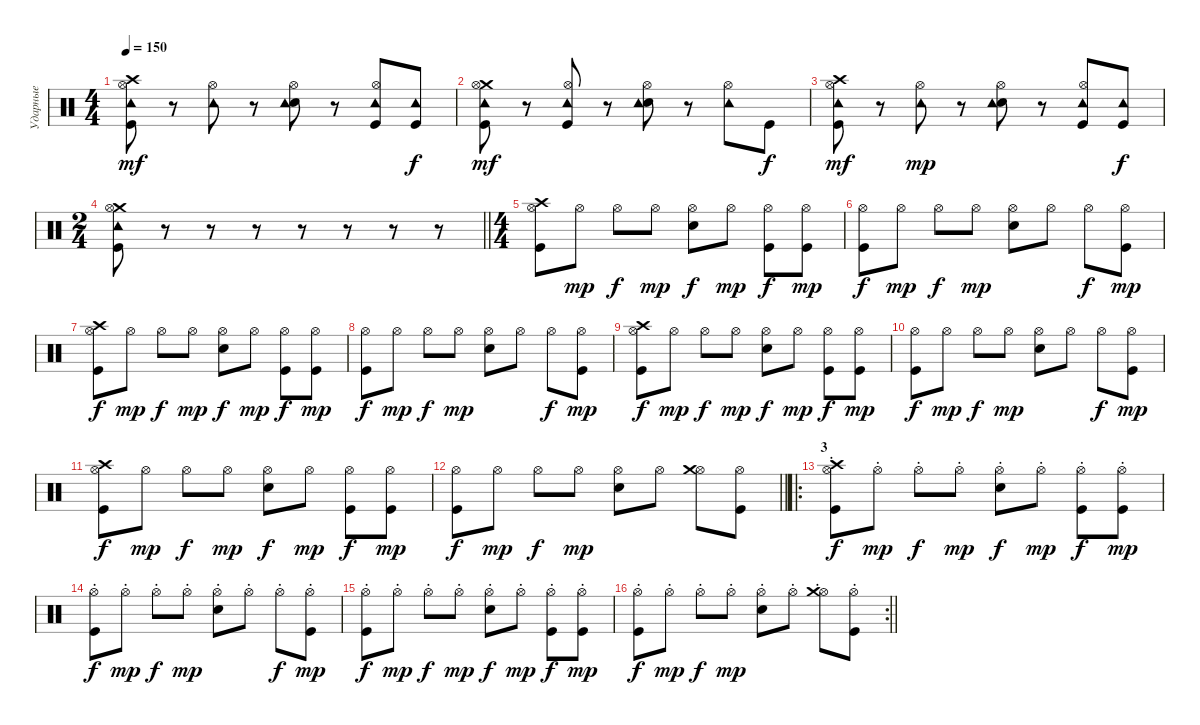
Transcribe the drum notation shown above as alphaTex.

\track ("Ударные" "Ударные") {instrument percussion}
\staff {score}
\articulation defaults
\ts (4 4)
\tempo 150
\clef neutral
\ks c
("Crash high (hit)" "Kick (hit)" "Hi-Hat (open)" "Tambourine (hit)").8{dy mf} r.8 ("Hi-Hat (open)" "Tambourine (hit)").8 r.8 ("Electric Snare (hit)" "Hi-Hat (open)" "Tambourine (hit)").8 r.8 ("Kick (hit)" "Hi-Hat (open)" "Tambourine (hit)").8 ("Kick (hit)" "Tambourine (hit)").8{dy f} |
("Crash medium (hit)" "Kick (hit)" "Hi-Hat (open)" "Tambourine (hit)").8{dy mf} r.8 ("Kick (hit)" "Hi-Hat (open)" "Tambourine (hit)").8 r.8 ("Electric Snare (hit)" "Hi-Hat (open)" "Tambourine (hit)").8 r.8 ("Hi-Hat (open)" "Tambourine (hit)").8 "Kick (hit)".8{dy f} |
("Crash high (hit)" "Kick (hit)" "Hi-Hat (open)" "Tambourine (hit)").8{dy mf} r.8 ("Hi-Hat (open)" "Tambourine (hit)").8{dy mp} r.8 ("Electric Snare (hit)" "Hi-Hat (open)" "Tambourine (hit)").8 r.8 ("Kick (hit)" "Hi-Hat (open)" "Tambourine (hit)").8 ("Kick (hit)" "Tambourine (hit)").8{dy f} |
\ts (2 4)
\barLineRight lightlight
("Crash medium (hit)" "Kick (hit)" "Hi-Hat (open)" "Tambourine (hit)").8 r.8 r.8 r.8 r.8 r.8 r.8 r.8 |
\ts (4 4)
("Crash high (hit)" "Hi-Hat (open)" "Kick (hit)").8 "Hi-Hat (open)".8{dy mp} "Hi-Hat (open)".8{dy f} "Hi-Hat (open)".8{dy mp} ("Snare (hit) 2" "Hi-Hat (open)").8{dy f} "Hi-Hat (open)".8{dy mp} ("Hi-Hat (open)" "Kick (hit)").8{dy f} ("Hi-Hat (open)" "Kick (hit)").8{dy mp} |
("Hi-Hat (open)" "Kick (hit)").8{dy f} "Hi-Hat (open)".8{dy mp} "Hi-Hat (open)".8{dy f} "Hi-Hat (open)".8{dy mp} ("Snare (hit) 2" "Hi-Hat (open)").8 "Hi-Hat (open)".8 "Hi-Hat (open)".8{dy f} ("Hi-Hat (open)" "Kick (hit)").8{dy mp} |
("Crash high (hit)" "Hi-Hat (open)" "Kick (hit)").8{dy f} "Hi-Hat (open)".8{dy mp} "Hi-Hat (open)".8{dy f} "Hi-Hat (open)".8{dy mp} ("Snare (hit) 2" "Hi-Hat (open)").8{dy f} "Hi-Hat (open)".8{dy mp} ("Hi-Hat (open)" "Kick (hit)").8{dy f} ("Hi-Hat (open)" "Kick (hit)").8{dy mp} |
("Hi-Hat (open)" "Kick (hit)").8{dy f} "Hi-Hat (open)".8{dy mp} "Hi-Hat (open)".8{dy f} "Hi-Hat (open)".8{dy mp} ("Snare (hit) 2" "Hi-Hat (open)").8 "Hi-Hat (open)".8 "Hi-Hat (open)".8{dy f} ("Hi-Hat (open)" "Kick (hit)").8{dy mp} |
("Crash high (hit)" "Hi-Hat (open)" "Kick (hit)").8{dy f} "Hi-Hat (open)".8{dy mp} "Hi-Hat (open)".8{dy f} "Hi-Hat (open)".8{dy mp} ("Snare (hit) 2" "Hi-Hat (open)").8{dy f} "Hi-Hat (open)".8{dy mp} ("Hi-Hat (open)" "Kick (hit)").8{dy f} ("Hi-Hat (open)" "Kick (hit)").8{dy mp} |
("Hi-Hat (open)" "Kick (hit)").8{dy f} "Hi-Hat (open)".8{dy mp} "Hi-Hat (open)".8{dy f} "Hi-Hat (open)".8{dy mp} ("Snare (hit) 2" "Hi-Hat (open)").8 "Hi-Hat (open)".8 "Hi-Hat (open)".8{dy f} ("Hi-Hat (open)" "Kick (hit)").8{dy mp} |
("Crash high (hit)" "Hi-Hat (open)" "Kick (hit)").8{dy f} "Hi-Hat (open)".8{dy mp} "Hi-Hat (open)".8{dy f} "Hi-Hat (open)".8{dy mp} ("Snare (hit) 2" "Hi-Hat (open)").8{dy f} "Hi-Hat (open)".8{dy mp} ("Hi-Hat (open)" "Kick (hit)").8{dy f} ("Hi-Hat (open)" "Kick (hit)").8{dy mp} |
\barLineRight lightlight
("Hi-Hat (open)" "Kick (hit)").8{dy f} "Hi-Hat (open)".8{dy mp} "Hi-Hat (open)".8{dy f} "Hi-Hat (open)".8{dy mp} ("Snare (hit) 2" "Hi-Hat (open)").8 "Hi-Hat (open)".8 ("Hi-Hat (open)" "Crash medium (hit)").8 ("Hi-Hat (open)" "Kick (hit)").8 |
\ro
\section ("" "3")
("Crash high (hit)"{st} "Hi-Hat (open)"{st} "Kick (hit)"{st}).8{dy f} "Hi-Hat (open)"{st}.8{dy mp} "Hi-Hat (open)"{st}.8{dy f} "Hi-Hat (open)"{st}.8{dy mp} ("Snare (hit) 2"{st} "Hi-Hat (open)"{st}).8{dy f} "Hi-Hat (open)"{st}.8{dy mp} ("Hi-Hat (open)"{st} "Kick (hit)"{st}).8{dy f} ("Hi-Hat (open)"{st} "Kick (hit)"{st}).8{dy mp} |
("Hi-Hat (open)"{st} "Kick (hit)"{st}).8{dy f} "Hi-Hat (open)"{st}.8{dy mp} "Hi-Hat (open)"{st}.8{dy f} "Hi-Hat (open)"{st}.8{dy mp} ("Snare (hit) 2"{st} "Hi-Hat (open)"{st}).8 "Hi-Hat (open)"{st}.8 "Hi-Hat (open)"{st}.8{dy f} ("Hi-Hat (open)"{st} "Kick (hit)"{st}).8{dy mp} |
("Hi-Hat (open)"{st} "Kick (hit)"{st}).8{dy f} "Hi-Hat (open)"{st}.8{dy mp} "Hi-Hat (open)"{st}.8{dy f} "Hi-Hat (open)"{st}.8{dy mp} ("Snare (hit) 2"{st} "Hi-Hat (open)"{st}).8{dy f} "Hi-Hat (open)"{st}.8{dy mp} ("Hi-Hat (open)"{st} "Kick (hit)"{st}).8{dy f} ("Hi-Hat (open)"{st} "Kick (hit)"{st}).8{dy mp} |
\rc 2
\barLineRight lightlight
("Hi-Hat (open)"{st} "Kick (hit)"{st}).8{dy f} "Hi-Hat (open)"{st}.8{dy mp} "Hi-Hat (open)"{st}.8{dy f} "Hi-Hat (open)"{st}.8{dy mp} ("Snare (hit) 2"{st} "Hi-Hat (open)"{st}).8 "Hi-Hat (open)"{st}.8 ("Hi-Hat (open)"{st} "Crash medium (hit)"{st}).8 ("Hi-Hat (open)"{st} "Kick (hit)"{st}).8
